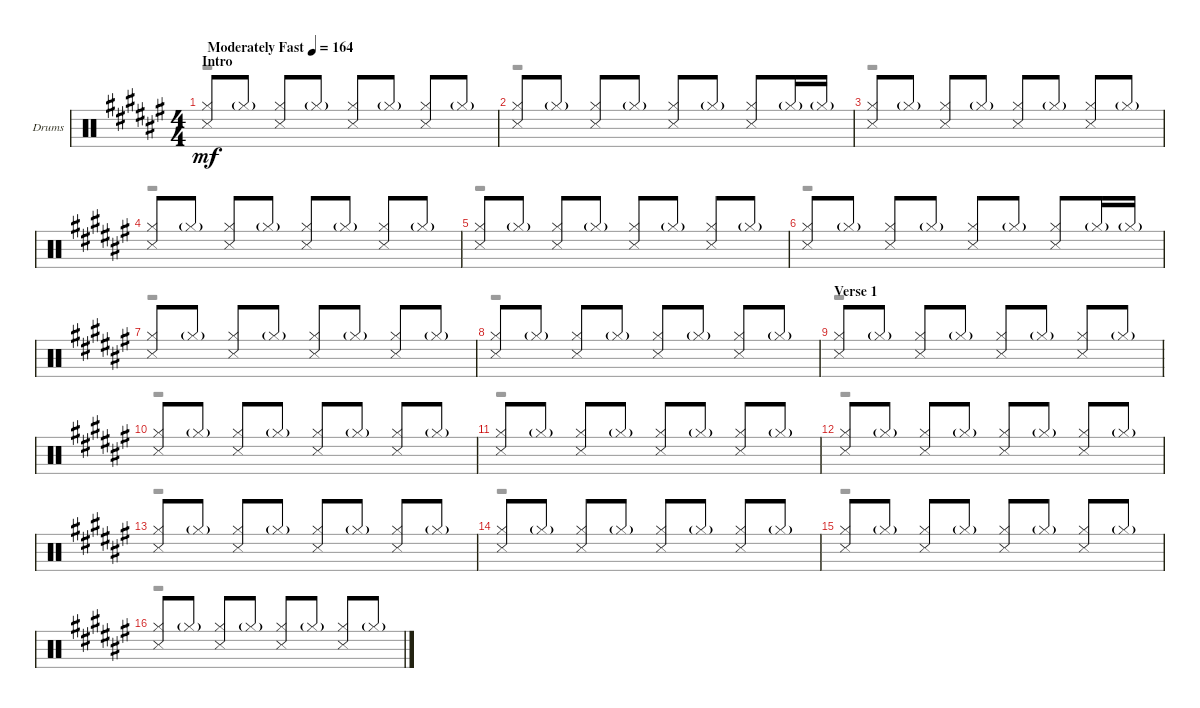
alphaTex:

\defaultSystemsLayout 4
\bracketExtendMode groupsimilarinstruments
\firstSystemTrackNameOrientation horizontal
\otherSystemsTrackNameOrientation horizontal
\track ("Drums" "Drums") {instrument percussion}
\staff {score}
\articulation defaults
\voice
\ts (4 4)
\section ("" "Intro")
\tempo (164 "Moderately Fast")
\clef neutral
\ks f#
("Hi-Hat (closed)" "Snare (side stick) 3").8{dy mf} "Hi-Hat (closed)"{g}.8 ("Hi-Hat (closed)" "Snare (side stick) 3").8 "Hi-Hat (closed)"{g}.8 ("Hi-Hat (closed)" "Snare (side stick) 3").8 "Hi-Hat (closed)"{g}.8 ("Hi-Hat (closed)" "Snare (side stick) 3").8 "Hi-Hat (closed)"{g}.8 |
("Hi-Hat (closed)" "Snare (side stick) 3").8 "Hi-Hat (closed)"{g}.8 ("Hi-Hat (closed)" "Snare (side stick) 3").8 "Hi-Hat (closed)"{g}.8 ("Hi-Hat (closed)" "Snare (side stick) 3").8 "Hi-Hat (closed)"{g}.8 ("Hi-Hat (closed)" "Snare (side stick) 3").8 "Hi-Hat (closed)"{g}.16 "Hi-Hat (closed)"{g}.16 |
("Hi-Hat (closed)" "Snare (side stick) 3").8 "Hi-Hat (closed)"{g}.8 ("Hi-Hat (closed)" "Snare (side stick) 3").8 "Hi-Hat (closed)"{g}.8 ("Hi-Hat (closed)" "Snare (side stick) 3").8 "Hi-Hat (closed)"{g}.8 ("Hi-Hat (closed)" "Snare (side stick) 3").8 "Hi-Hat (closed)"{g}.8 |
("Hi-Hat (closed)" "Snare (side stick) 3").8 "Hi-Hat (closed)"{g}.8 ("Hi-Hat (closed)" "Snare (side stick) 3").8 "Hi-Hat (closed)"{g}.8 ("Hi-Hat (closed)" "Snare (side stick) 3").8 "Hi-Hat (closed)"{g}.8 ("Hi-Hat (closed)" "Snare (side stick) 3").8 "Hi-Hat (closed)"{g}.8 |
("Hi-Hat (closed)" "Snare (side stick) 3").8 "Hi-Hat (closed)"{g}.8 ("Hi-Hat (closed)" "Snare (side stick) 3").8 "Hi-Hat (closed)"{g}.8 ("Hi-Hat (closed)" "Snare (side stick) 3").8 "Hi-Hat (closed)"{g}.8 ("Hi-Hat (closed)" "Snare (side stick) 3").8 "Hi-Hat (closed)"{g}.8 |
("Hi-Hat (closed)" "Snare (side stick) 3").8 "Hi-Hat (closed)"{g}.8 ("Hi-Hat (closed)" "Snare (side stick) 3").8 "Hi-Hat (closed)"{g}.8 ("Hi-Hat (closed)" "Snare (side stick) 3").8 "Hi-Hat (closed)"{g}.8 ("Hi-Hat (closed)" "Snare (side stick) 3").8 "Hi-Hat (closed)"{g}.16 "Hi-Hat (closed)"{g}.16 |
("Hi-Hat (closed)" "Snare (side stick) 3").8 "Hi-Hat (closed)"{g}.8 ("Hi-Hat (closed)" "Snare (side stick) 3").8 "Hi-Hat (closed)"{g}.8 ("Hi-Hat (closed)" "Snare (side stick) 3").8 "Hi-Hat (closed)"{g}.8 ("Hi-Hat (closed)" "Snare (side stick) 3").8 "Hi-Hat (closed)"{g}.8 |
("Hi-Hat (closed)" "Snare (side stick) 3").8 "Hi-Hat (closed)"{g}.8 ("Hi-Hat (closed)" "Snare (side stick) 3").8 "Hi-Hat (closed)"{g}.8 ("Hi-Hat (closed)" "Snare (side stick) 3").8 "Hi-Hat (closed)"{g}.8 ("Hi-Hat (closed)" "Snare (side stick) 3").8 "Hi-Hat (closed)"{g}.8 |
\section ("" "Verse 1")
("Hi-Hat (closed)" "Snare (side stick) 3").8 "Hi-Hat (closed)"{g}.8 ("Hi-Hat (closed)" "Snare (side stick) 3").8 "Hi-Hat (closed)"{g}.8 ("Hi-Hat (closed)" "Snare (side stick) 3").8 "Hi-Hat (closed)"{g}.8 ("Hi-Hat (closed)" "Snare (side stick) 3").8 "Hi-Hat (closed)"{g}.8 |
("Hi-Hat (closed)" "Snare (side stick) 3").8 "Hi-Hat (closed)"{g}.8 ("Hi-Hat (closed)" "Snare (side stick) 3").8 "Hi-Hat (closed)"{g}.8 ("Hi-Hat (closed)" "Snare (side stick) 3").8 "Hi-Hat (closed)"{g}.8 ("Hi-Hat (closed)" "Snare (side stick) 3").8 "Hi-Hat (closed)"{g}.8 |
("Hi-Hat (closed)" "Snare (side stick) 3").8 "Hi-Hat (closed)"{g}.8 ("Hi-Hat (closed)" "Snare (side stick) 3").8 "Hi-Hat (closed)"{g}.8 ("Hi-Hat (closed)" "Snare (side stick) 3").8 "Hi-Hat (closed)"{g}.8 ("Hi-Hat (closed)" "Snare (side stick) 3").8 "Hi-Hat (closed)"{g}.8 |
("Hi-Hat (closed)" "Snare (side stick) 3").8 "Hi-Hat (closed)"{g}.8 ("Hi-Hat (closed)" "Snare (side stick) 3").8 "Hi-Hat (closed)"{g}.8 ("Hi-Hat (closed)" "Snare (side stick) 3").8 "Hi-Hat (closed)"{g}.8 ("Hi-Hat (closed)" "Snare (side stick) 3").8 "Hi-Hat (closed)"{g}.8 |
("Hi-Hat (closed)" "Snare (side stick) 3").8 "Hi-Hat (closed)"{g}.8 ("Hi-Hat (closed)" "Snare (side stick) 3").8 "Hi-Hat (closed)"{g}.8 ("Hi-Hat (closed)" "Snare (side stick) 3").8 "Hi-Hat (closed)"{g}.8 ("Hi-Hat (closed)" "Snare (side stick) 3").8 "Hi-Hat (closed)"{g}.8 |
("Hi-Hat (closed)" "Snare (side stick) 3").8 "Hi-Hat (closed)"{g}.8 ("Hi-Hat (closed)" "Snare (side stick) 3").8 "Hi-Hat (closed)"{g}.8 ("Hi-Hat (closed)" "Snare (side stick) 3").8 "Hi-Hat (closed)"{g}.8 ("Hi-Hat (closed)" "Snare (side stick) 3").8 "Hi-Hat (closed)"{g}.8 |
("Hi-Hat (closed)" "Snare (side stick) 3").8 "Hi-Hat (closed)"{g}.8 ("Hi-Hat (closed)" "Snare (side stick) 3").8 "Hi-Hat (closed)"{g}.8 ("Hi-Hat (closed)" "Snare (side stick) 3").8 "Hi-Hat (closed)"{g}.8 ("Hi-Hat (closed)" "Snare (side stick) 3").8 "Hi-Hat (closed)"{g}.8 |
("Hi-Hat (closed)" "Snare (side stick) 3").8 "Hi-Hat (closed)"{g}.8 ("Hi-Hat (closed)" "Snare (side stick) 3").8 "Hi-Hat (closed)"{g}.8 ("Hi-Hat (closed)" "Snare (side stick) 3").8 "Hi-Hat (closed)"{g}.8 ("Hi-Hat (closed)" "Snare (side stick) 3").8 "Hi-Hat (closed)"{g}.8
\voice
\clef neutral
\ottava regular
\simile none
\ks f#
r.1{dy mf} |
r.1 |
r.1 |
r.1 |
r.1 |
r.1 |
r.1 |
r.1 |
r.1 |
r.1 |
r.1 |
r.1 |
r.1 |
r.1 |
r.1 |
r.1
